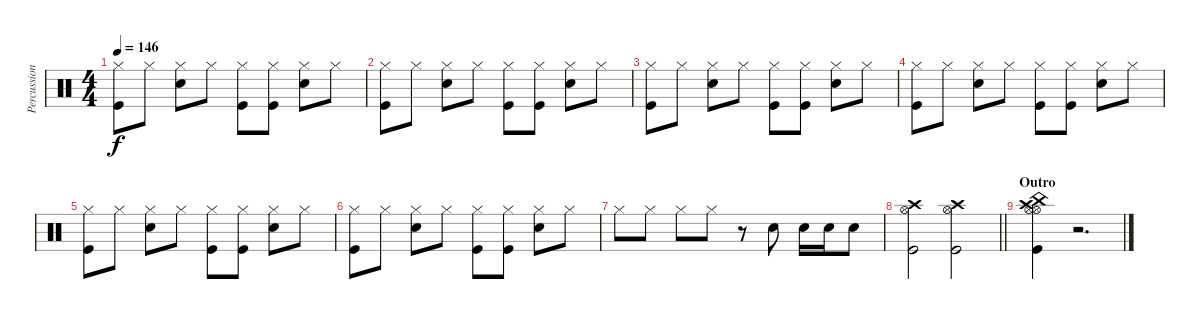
\track ("Percussions" "Percussion") {instrument percussion}
\staff {score}
\articulation defaults
\ts (4 4)
\tempo 146
\clef neutral
\ks c
("Hi-Hat (closed)" "Kick (hit)").8{dy f} "Hi-Hat (closed)".8 ("Hi-Hat (closed)" "Snare (hit) 2").8 "Hi-Hat (closed)".8 ("Hi-Hat (closed)" "Kick (hit)").8 ("Hi-Hat (closed)" "Kick (hit)").8 ("Hi-Hat (closed)" "Snare (hit) 2").8 "Hi-Hat (closed)".8 |
("Hi-Hat (closed)" "Kick (hit)").8 "Hi-Hat (closed)".8 ("Hi-Hat (closed)" "Snare (hit) 2").8 "Hi-Hat (closed)".8 ("Hi-Hat (closed)" "Kick (hit)").8 ("Hi-Hat (closed)" "Kick (hit)").8 ("Hi-Hat (closed)" "Snare (hit) 2").8 "Hi-Hat (closed)".8 |
("Hi-Hat (closed)" "Kick (hit)").8 "Hi-Hat (closed)".8 ("Hi-Hat (closed)" "Snare (hit) 2").8 "Hi-Hat (closed)".8 ("Hi-Hat (closed)" "Kick (hit)").8 ("Hi-Hat (closed)" "Kick (hit)").8 ("Hi-Hat (closed)" "Snare (hit) 2").8 "Hi-Hat (closed)".8 |
("Hi-Hat (closed)" "Kick (hit)").8 "Hi-Hat (closed)".8 ("Hi-Hat (closed)" "Snare (hit) 2").8 "Hi-Hat (closed)".8 ("Hi-Hat (closed)" "Kick (hit)").8 ("Hi-Hat (closed)" "Kick (hit)").8 ("Hi-Hat (closed)" "Snare (hit) 2").8 "Hi-Hat (closed)".8 |
("Hi-Hat (closed)" "Kick (hit)").8 "Hi-Hat (closed)".8 ("Hi-Hat (closed)" "Snare (hit) 2").8 "Hi-Hat (closed)".8 ("Hi-Hat (closed)" "Kick (hit)").8 ("Hi-Hat (closed)" "Kick (hit)").8 ("Hi-Hat (closed)" "Snare (hit) 2").8 "Hi-Hat (closed)".8 |
("Hi-Hat (closed)" "Kick (hit)").8 "Hi-Hat (closed)".8 ("Hi-Hat (closed)" "Snare (hit) 2").8 "Hi-Hat (closed)".8 ("Hi-Hat (closed)" "Kick (hit)").8 ("Hi-Hat (closed)" "Kick (hit)").8 ("Hi-Hat (closed)" "Snare (hit) 2").8 "Hi-Hat (closed)".8 |
"Hi-Hat (closed)".8 "Hi-Hat (closed)".8 "Hi-Hat (closed)".8 "Hi-Hat (closed)".8 r.8 "Snare (hit) 2".8 "Snare (hit) 2".16 "Snare (hit) 2".16 "Snare (hit) 2".8 |
\barLineRight lightlight
("Kick (hit)" "Hi-Hat (open)" "Crash high (hit)").2 ("Kick (hit)" "Hi-Hat (open)" "Crash high (hit)").2 |
\section ("" "Outro")
("Kick (hit)" "Hi-Hat (open)" "Hi-Hat (open)" "China (hit)" "Crash high (hit)").4 r.2{d}
